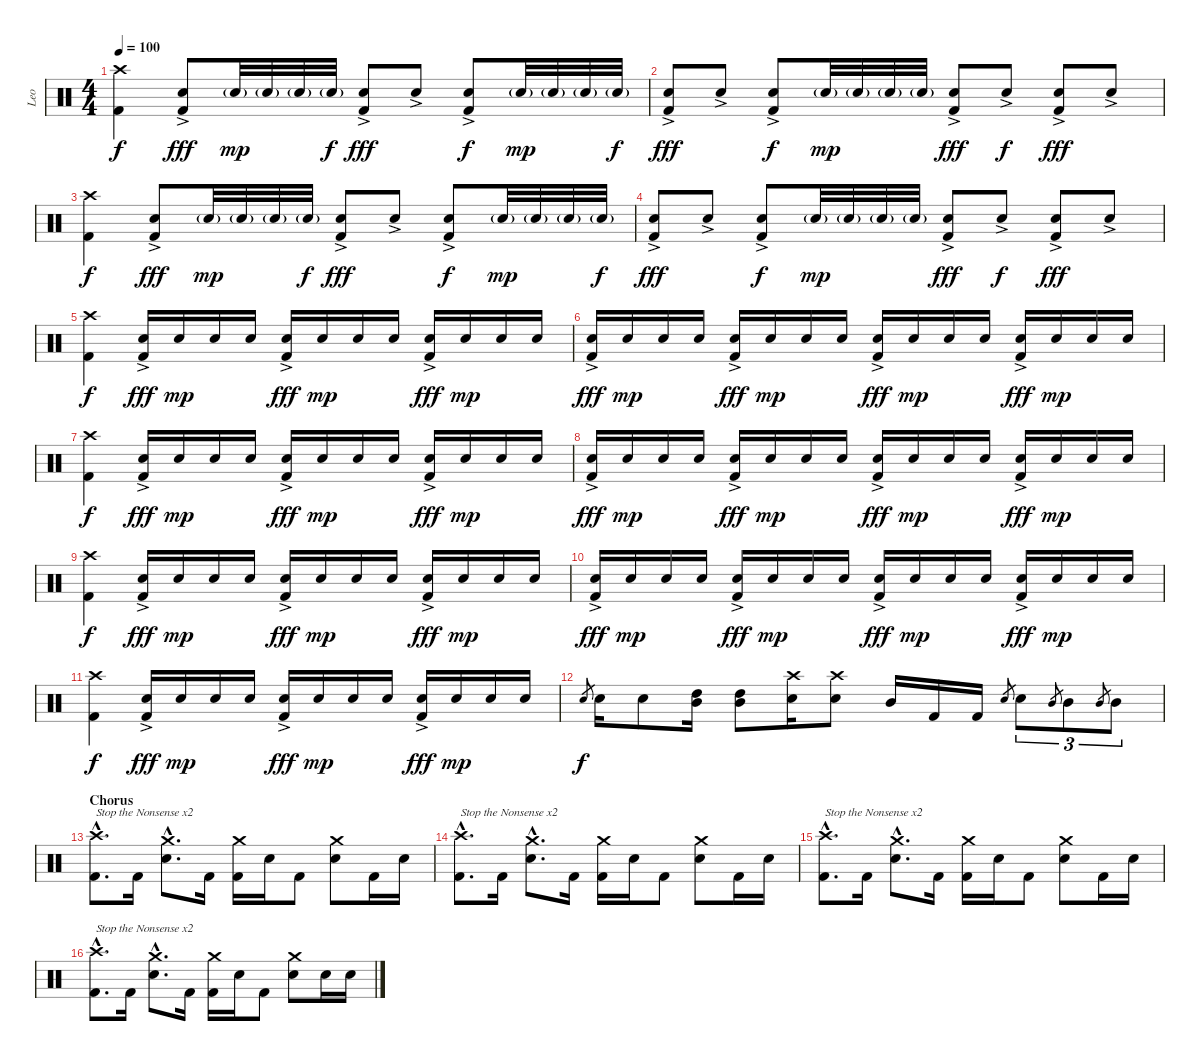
\track ("Leo" "Leo") {instrument percussion}
\staff {score}
\articulation defaults
\ts (4 4)
\tempo 100
\clef neutral
\ks c
("Crash high (hit)" "Kick (hit) 2").4{dy f} ("Electric Snare (hit)"{ac} "Kick (hit) 2").8{dy fff} "Electric Snare (hit)"{g}.32{dy mp} "Electric Snare (hit)"{g}.32 "Electric Snare (hit)"{g}.32 "Electric Snare (hit)"{g}.32{dy f} ("Electric Snare (hit)"{ac} "Kick (hit) 2").8{dy fff} "Electric Snare (hit)"{ac}.8 ("Electric Snare (hit)"{ac} "Kick (hit) 2").8{dy f} "Electric Snare (hit)"{g}.32{dy mp} "Electric Snare (hit)"{g}.32 "Electric Snare (hit)"{g}.32 "Electric Snare (hit)"{g}.32{dy f} |
("Electric Snare (hit)"{ac} "Kick (hit) 2").8{dy fff} "Electric Snare (hit)"{ac}.8 ("Electric Snare (hit)"{ac} "Kick (hit) 2").8{dy f} "Electric Snare (hit)"{g}.32{dy mp} "Electric Snare (hit)"{g}.32 "Electric Snare (hit)"{g}.32 "Electric Snare (hit)"{g}.32 ("Electric Snare (hit)"{ac} "Kick (hit) 2").8{dy fff} "Electric Snare (hit)"{ac}.8{dy f} ("Electric Snare (hit)"{ac} "Kick (hit) 2").8{dy fff} "Electric Snare (hit)"{ac}.8 |
("Crash high (hit)" "Kick (hit) 2").4{dy f} ("Electric Snare (hit)"{ac} "Kick (hit) 2").8{dy fff} "Electric Snare (hit)"{g}.32{dy mp} "Electric Snare (hit)"{g}.32 "Electric Snare (hit)"{g}.32 "Electric Snare (hit)"{g}.32{dy f} ("Electric Snare (hit)"{ac} "Kick (hit) 2").8{dy fff} "Electric Snare (hit)"{ac}.8 ("Electric Snare (hit)"{ac} "Kick (hit) 2").8{dy f} "Electric Snare (hit)"{g}.32{dy mp} "Electric Snare (hit)"{g}.32 "Electric Snare (hit)"{g}.32 "Electric Snare (hit)"{g}.32{dy f} |
("Electric Snare (hit)"{ac} "Kick (hit) 2").8{dy fff} "Electric Snare (hit)"{ac}.8 ("Electric Snare (hit)"{ac} "Kick (hit) 2").8{dy f} "Electric Snare (hit)"{g}.32{dy mp} "Electric Snare (hit)"{g}.32 "Electric Snare (hit)"{g}.32 "Electric Snare (hit)"{g}.32 ("Electric Snare (hit)"{ac} "Kick (hit) 2").8{dy fff} "Electric Snare (hit)"{ac}.8{dy f} ("Electric Snare (hit)"{ac} "Kick (hit) 2").8{dy fff} "Electric Snare (hit)"{ac}.8 |
("Crash high (hit)" "Kick (hit) 2").4{dy f} ("Electric Snare (hit)"{ac} "Kick (hit) 2").16{dy fff} "Electric Snare (hit)".16{dy mp} "Electric Snare (hit)".16 "Electric Snare (hit)".16 ("Electric Snare (hit)"{ac} "Kick (hit) 2").16{dy fff} "Electric Snare (hit)".16{dy mp} "Electric Snare (hit)".16 "Electric Snare (hit)".16 ("Electric Snare (hit)"{ac} "Kick (hit) 2").16{dy fff} "Electric Snare (hit)".16{dy mp} "Electric Snare (hit)".16 "Electric Snare (hit)".16 |
("Electric Snare (hit)"{ac} "Kick (hit) 2").16{dy fff} "Electric Snare (hit)".16{dy mp} "Electric Snare (hit)".16 "Electric Snare (hit)".16 ("Electric Snare (hit)"{ac} "Kick (hit) 2").16{dy fff} "Electric Snare (hit)".16{dy mp} "Electric Snare (hit)".16 "Electric Snare (hit)".16 ("Electric Snare (hit)"{ac} "Kick (hit) 2").16{dy fff} "Electric Snare (hit)".16{dy mp} "Electric Snare (hit)".16 "Electric Snare (hit)".16 ("Electric Snare (hit)"{ac} "Kick (hit) 2").16{dy fff} "Electric Snare (hit)".16{dy mp} "Electric Snare (hit)".16 "Electric Snare (hit)".16 |
("Crash high (hit)" "Kick (hit) 2").4{dy f} ("Electric Snare (hit)"{ac} "Kick (hit) 2").16{dy fff} "Electric Snare (hit)".16{dy mp} "Electric Snare (hit)".16 "Electric Snare (hit)".16 ("Electric Snare (hit)"{ac} "Kick (hit) 2").16{dy fff} "Electric Snare (hit)".16{dy mp} "Electric Snare (hit)".16 "Electric Snare (hit)".16 ("Electric Snare (hit)"{ac} "Kick (hit) 2").16{dy fff} "Electric Snare (hit)".16{dy mp} "Electric Snare (hit)".16 "Electric Snare (hit)".16 |
("Electric Snare (hit)"{ac} "Kick (hit) 2").16{dy fff} "Electric Snare (hit)".16{dy mp} "Electric Snare (hit)".16 "Electric Snare (hit)".16 ("Electric Snare (hit)"{ac} "Kick (hit) 2").16{dy fff} "Electric Snare (hit)".16{dy mp} "Electric Snare (hit)".16 "Electric Snare (hit)".16 ("Electric Snare (hit)"{ac} "Kick (hit) 2").16{dy fff} "Electric Snare (hit)".16{dy mp} "Electric Snare (hit)".16 "Electric Snare (hit)".16 ("Electric Snare (hit)"{ac} "Kick (hit) 2").16{dy fff} "Electric Snare (hit)".16{dy mp} "Electric Snare (hit)".16 "Electric Snare (hit)".16 |
("Crash high (hit)" "Kick (hit) 2").4{dy f} ("Electric Snare (hit)"{ac} "Kick (hit) 2").16{dy fff} "Electric Snare (hit)".16{dy mp} "Electric Snare (hit)".16 "Electric Snare (hit)".16 ("Electric Snare (hit)"{ac} "Kick (hit) 2").16{dy fff} "Electric Snare (hit)".16{dy mp} "Electric Snare (hit)".16 "Electric Snare (hit)".16 ("Electric Snare (hit)"{ac} "Kick (hit) 2").16{dy fff} "Electric Snare (hit)".16{dy mp} "Electric Snare (hit)".16 "Electric Snare (hit)".16 |
("Electric Snare (hit)"{ac} "Kick (hit) 2").16{dy fff} "Electric Snare (hit)".16{dy mp} "Electric Snare (hit)".16 "Electric Snare (hit)".16 ("Electric Snare (hit)"{ac} "Kick (hit) 2").16{dy fff} "Electric Snare (hit)".16{dy mp} "Electric Snare (hit)".16 "Electric Snare (hit)".16 ("Electric Snare (hit)"{ac} "Kick (hit) 2").16{dy fff} "Electric Snare (hit)".16{dy mp} "Electric Snare (hit)".16 "Electric Snare (hit)".16 ("Electric Snare (hit)"{ac} "Kick (hit) 2").16{dy fff} "Electric Snare (hit)".16{dy mp} "Electric Snare (hit)".16 "Electric Snare (hit)".16 |
("Crash high (hit)" "Kick (hit) 2").4{dy f} ("Electric Snare (hit)"{ac} "Kick (hit) 2").16{dy fff} "Electric Snare (hit)".16{dy mp} "Electric Snare (hit)".16 "Electric Snare (hit)".16 ("Electric Snare (hit)"{ac} "Kick (hit) 2").16{dy fff} "Electric Snare (hit)".16{dy mp} "Electric Snare (hit)".16 "Electric Snare (hit)".16 ("Electric Snare (hit)"{ac} "Kick (hit) 2").16{dy fff} "Electric Snare (hit)".16{dy mp} "Electric Snare (hit)".16 "Electric Snare (hit)".16 |
"Snare (hit) 2".8{gr dy f} "Snare (hit) 2".16 "Snare (hit) 2".8 ("Mid Tom (hit)" "High Tom (hit)").16 ("Mid Tom (hit)" "High Tom (hit)").8 ("Crash high (hit)" "Electric Snare (hit)").16 ("Crash high (hit)" "Electric Snare (hit)").8 "Mid Tom (hit)".16 "Kick (hit) 2".16 "Kick (hit) 2".16 "Electric Snare (hit)".8{gr} "Electric Snare (hit)".8{tu (3 2)} "Mid Tom (hit)".8{gr} "Mid Tom (hit)".8{tu (3 2)} "Mid Tom (hit)".8{gr} "Mid Tom (hit)".8{tu (3 2)} |
\section ("" "Chorus")
("Crash high (hit)"{hac} "Kick (hit) 2"{hac}).8{d txt "Stop the Nonsense x2"} "Kick (hit) 2".16 ("Crash medium (hit)"{hac} "Electric Snare (hit)"{hac}).8{d} "Kick (hit) 2".16 ("Crash medium (hit)" "Kick (hit) 2").16 "Electric Snare (hit)".16 "Kick (hit) 2".8 ("Crash medium (hit)" "Electric Snare (hit)").8 "Kick (hit) 2".16 "Electric Snare (hit)".16 |
("Crash high (hit)"{hac} "Kick (hit) 2"{hac}).8{d txt "Stop the Nonsense x2"} "Kick (hit) 2".16 ("Crash medium (hit)"{hac} "Electric Snare (hit)"{hac}).8{d} "Kick (hit) 2".16 ("Crash medium (hit)" "Kick (hit) 2").16 "Electric Snare (hit)".16 "Kick (hit) 2".8 ("Crash medium (hit)" "Electric Snare (hit)").8 "Kick (hit) 2".16 "Electric Snare (hit)".16 |
("Crash high (hit)"{hac} "Kick (hit) 2"{hac}).8{d txt "Stop the Nonsense x2"} "Kick (hit) 2".16 ("Crash medium (hit)"{hac} "Electric Snare (hit)"{hac}).8{d} "Kick (hit) 2".16 ("Crash medium (hit)" "Kick (hit) 2").16 "Electric Snare (hit)".16 "Kick (hit) 2".8 ("Crash medium (hit)" "Electric Snare (hit)").8 "Kick (hit) 2".16 "Electric Snare (hit)".16 |
("Crash high (hit)"{hac} "Kick (hit) 2"{hac}).8{d txt "Stop the Nonsense x2"} "Kick (hit) 2".16 ("Crash medium (hit)"{hac} "Electric Snare (hit)"{hac}).8{d} "Kick (hit) 2".16 ("Crash medium (hit)" "Kick (hit) 2").16 "Electric Snare (hit)".16 "Kick (hit) 2".8 ("Crash medium (hit)" "Electric Snare (hit)").8 "Electric Snare (hit)".16 "Electric Snare (hit)".16
